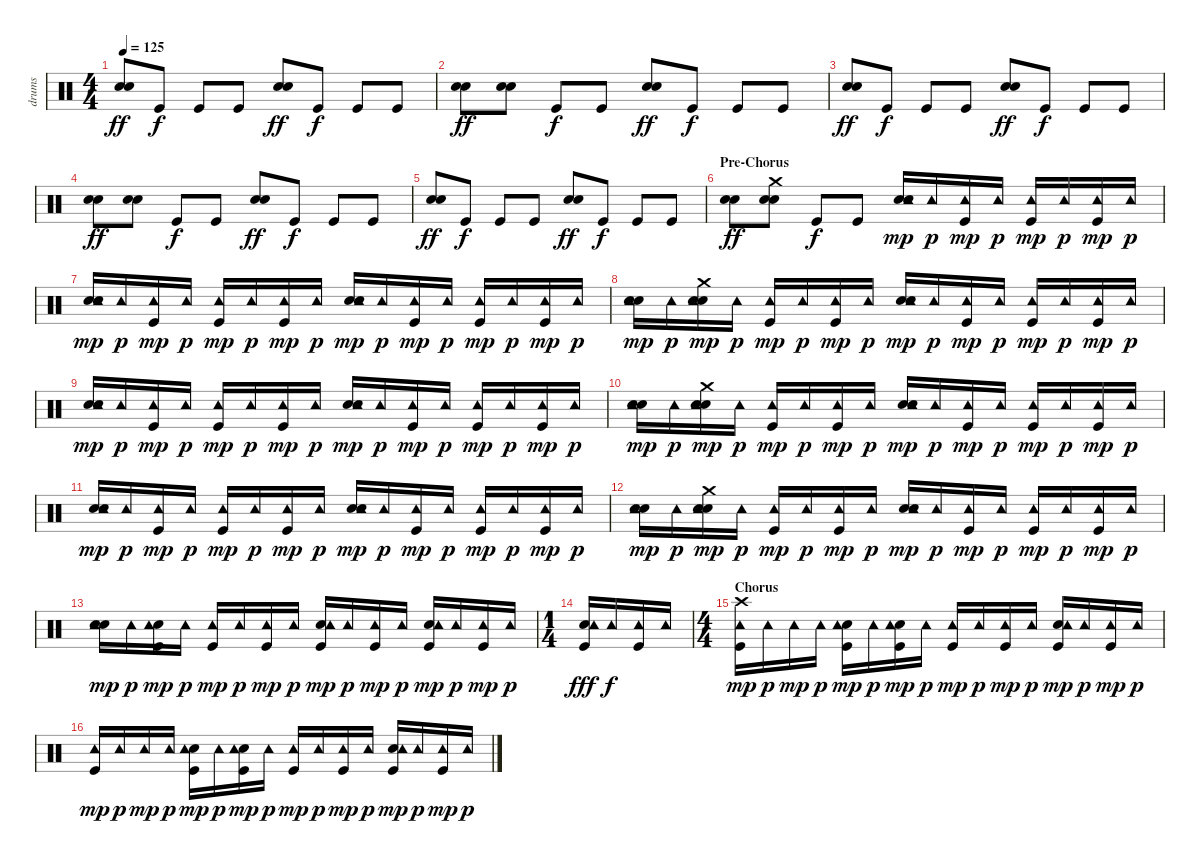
\track ("drums" "drums") {instrument percussion}
\staff {score}
\articulation defaults
\ts (4 4)
\tempo 125
\clef neutral
\ks c
("Electric Snare (hit)" "Hand Clap (hit)").8{dy ff} "Kick (hit)".8{dy f} "Kick (hit)".8 "Kick (hit)".8 ("Electric Snare (hit)" "Hand Clap (hit)").8{dy ff} "Kick (hit)".8{dy f} "Kick (hit)".8 "Kick (hit)".8 |
("Electric Snare (hit)" "Hand Clap (hit)").8{dy ff} ("Electric Snare (hit)" "Hand Clap (hit)").8 "Kick (hit)".8{dy f} "Kick (hit)".8 ("Electric Snare (hit)" "Hand Clap (hit)").8{dy ff} "Kick (hit)".8{dy f} "Kick (hit)".8 "Kick (hit)".8 |
("Electric Snare (hit)" "Hand Clap (hit)").8{dy ff} "Kick (hit)".8{dy f} "Kick (hit)".8 "Kick (hit)".8 ("Electric Snare (hit)" "Hand Clap (hit)").8{dy ff} "Kick (hit)".8{dy f} "Kick (hit)".8 "Kick (hit)".8 |
("Electric Snare (hit)" "Hand Clap (hit)").8{dy ff} ("Electric Snare (hit)" "Hand Clap (hit)").8 "Kick (hit)".8{dy f} "Kick (hit)".8 ("Electric Snare (hit)" "Hand Clap (hit)").8{dy ff} "Kick (hit)".8{dy f} "Kick (hit)".8 "Kick (hit)".8 |
("Electric Snare (hit)" "Hand Clap (hit)").8{dy ff} "Kick (hit)".8{dy f} "Kick (hit)".8 "Kick (hit)".8 ("Electric Snare (hit)" "Hand Clap (hit)").8{dy ff} "Kick (hit)".8{dy f} "Kick (hit)".8 "Kick (hit)".8 |
\section ("" "Pre-Chorus")
("Electric Snare (hit)" "Hand Clap (hit)").8{dy ff} ("Electric Snare (hit)" "Hand Clap (hit)" "Crash medium (hit)").8 "Kick (hit)".8{dy f} "Kick (hit)".8 ("Electric Snare (hit)" "Hand Clap (hit)" "Tambourine (hit)").16{dy mp} "Tambourine (hit)".16{dy p} ("Kick (hit)" "Tambourine (hit)").16{dy mp} "Tambourine (hit)".16{dy p} ("Kick (hit)" "Tambourine (hit)").16{dy mp} "Tambourine (hit)".16{dy p} ("Kick (hit)" "Tambourine (hit)").16{dy mp} "Tambourine (hit)".16{dy p} |
("Electric Snare (hit)" "Hand Clap (hit)" "Tambourine (hit)").16{dy mp} "Tambourine (hit)".16{dy p} ("Kick (hit)" "Tambourine (hit)").16{dy mp} "Tambourine (hit)".16{dy p} ("Kick (hit)" "Tambourine (hit)").16{dy mp} "Tambourine (hit)".16{dy p} ("Kick (hit)" "Tambourine (hit)").16{dy mp} "Tambourine (hit)".16{dy p} ("Electric Snare (hit)" "Hand Clap (hit)" "Tambourine (hit)").16{dy mp} "Tambourine (hit)".16{dy p} ("Kick (hit)" "Tambourine (hit)").16{dy mp} "Tambourine (hit)".16{dy p} ("Kick (hit)" "Tambourine (hit)").16{dy mp} "Tambourine (hit)".16{dy p} ("Kick (hit)" "Tambourine (hit)").16{dy mp} "Tambourine (hit)".16{dy p} |
("Electric Snare (hit)" "Hand Clap (hit)" "Tambourine (hit)").16{dy mp} "Tambourine (hit)".16{dy p} ("Electric Snare (hit)" "Hand Clap (hit)" "Crash medium (hit)" "Tambourine (hit)").16{dy mp} "Tambourine (hit)".16{dy p} ("Kick (hit)" "Tambourine (hit)").16{dy mp} "Tambourine (hit)".16{dy p} ("Kick (hit)" "Tambourine (hit)").16{dy mp} "Tambourine (hit)".16{dy p} ("Electric Snare (hit)" "Hand Clap (hit)" "Tambourine (hit)").16{dy mp} "Tambourine (hit)".16{dy p} ("Kick (hit)" "Tambourine (hit)").16{dy mp} "Tambourine (hit)".16{dy p} ("Kick (hit)" "Tambourine (hit)").16{dy mp} "Tambourine (hit)".16{dy p} ("Kick (hit)" "Tambourine (hit)").16{dy mp} "Tambourine (hit)".16{dy p} |
("Electric Snare (hit)" "Hand Clap (hit)" "Tambourine (hit)").16{dy mp} "Tambourine (hit)".16{dy p} ("Kick (hit)" "Tambourine (hit)").16{dy mp} "Tambourine (hit)".16{dy p} ("Kick (hit)" "Tambourine (hit)").16{dy mp} "Tambourine (hit)".16{dy p} ("Kick (hit)" "Tambourine (hit)").16{dy mp} "Tambourine (hit)".16{dy p} ("Electric Snare (hit)" "Hand Clap (hit)" "Tambourine (hit)").16{dy mp} "Tambourine (hit)".16{dy p} ("Kick (hit)" "Tambourine (hit)").16{dy mp} "Tambourine (hit)".16{dy p} ("Kick (hit)" "Tambourine (hit)").16{dy mp} "Tambourine (hit)".16{dy p} ("Kick (hit)" "Tambourine (hit)").16{dy mp} "Tambourine (hit)".16{dy p} |
("Electric Snare (hit)" "Hand Clap (hit)" "Tambourine (hit)").16{dy mp} "Tambourine (hit)".16{dy p} ("Electric Snare (hit)" "Hand Clap (hit)" "Crash medium (hit)" "Tambourine (hit)").16{dy mp} "Tambourine (hit)".16{dy p} ("Kick (hit)" "Tambourine (hit)").16{dy mp} "Tambourine (hit)".16{dy p} ("Kick (hit)" "Tambourine (hit)").16{dy mp} "Tambourine (hit)".16{dy p} ("Electric Snare (hit)" "Hand Clap (hit)" "Tambourine (hit)").16{dy mp} "Tambourine (hit)".16{dy p} ("Kick (hit)" "Tambourine (hit)").16{dy mp} "Tambourine (hit)".16{dy p} ("Kick (hit)" "Tambourine (hit)").16{dy mp} "Tambourine (hit)".16{dy p} ("Kick (hit)" "Tambourine (hit)").16{dy mp} "Tambourine (hit)".16{dy p} |
("Electric Snare (hit)" "Hand Clap (hit)" "Tambourine (hit)").16{dy mp} "Tambourine (hit)".16{dy p} ("Kick (hit)" "Tambourine (hit)").16{dy mp} "Tambourine (hit)".16{dy p} ("Kick (hit)" "Tambourine (hit)").16{dy mp} "Tambourine (hit)".16{dy p} ("Kick (hit)" "Tambourine (hit)").16{dy mp} "Tambourine (hit)".16{dy p} ("Electric Snare (hit)" "Hand Clap (hit)" "Tambourine (hit)").16{dy mp} "Tambourine (hit)".16{dy p} ("Kick (hit)" "Tambourine (hit)").16{dy mp} "Tambourine (hit)".16{dy p} ("Kick (hit)" "Tambourine (hit)").16{dy mp} "Tambourine (hit)".16{dy p} ("Kick (hit)" "Tambourine (hit)").16{dy mp} "Tambourine (hit)".16{dy p} |
("Electric Snare (hit)" "Hand Clap (hit)" "Tambourine (hit)").16{dy mp} "Tambourine (hit)".16{dy p} ("Electric Snare (hit)" "Hand Clap (hit)" "Crash medium (hit)" "Tambourine (hit)").16{dy mp} "Tambourine (hit)".16{dy p} ("Kick (hit)" "Tambourine (hit)").16{dy mp} "Tambourine (hit)".16{dy p} ("Kick (hit)" "Tambourine (hit)").16{dy mp} "Tambourine (hit)".16{dy p} ("Electric Snare (hit)" "Hand Clap (hit)" "Tambourine (hit)").16{dy mp} "Tambourine (hit)".16{dy p} ("Kick (hit)" "Tambourine (hit)").16{dy mp} "Tambourine (hit)".16{dy p} ("Kick (hit)" "Tambourine (hit)").16{dy mp} "Tambourine (hit)".16{dy p} ("Kick (hit)" "Tambourine (hit)").16{dy mp} "Tambourine (hit)".16{dy p} |
("Electric Snare (hit)" "Hand Clap (hit)" "Tambourine (hit)").16{dy mp} "Tambourine (hit)".16{dy p} ("Electric Snare (hit)" "Kick (hit)" "Tambourine (hit)").16{dy mp} "Tambourine (hit)".16{dy p} ("Kick (hit)" "Tambourine (hit)").16{dy mp} "Tambourine (hit)".16{dy p} ("Kick (hit)" "Tambourine (hit)").16{dy mp} "Tambourine (hit)".16{dy p} ("Electric Snare (hit)" "Kick (hit)" "Tambourine (hit)").16{dy mp} "Tambourine (hit)".16{dy p} ("Kick (hit)" "Tambourine (hit)").16{dy mp} "Tambourine (hit)".16{dy p} ("Electric Snare (hit)" "Kick (hit)" "Tambourine (hit)").16{dy mp} "Tambourine (hit)".16{dy p} ("Kick (hit)" "Tambourine (hit)").16{dy mp} "Tambourine (hit)".16{dy p} |
\ts (1 4)
("Electric Snare (hit)" "Kick (hit)" "Tambourine (hit)").16{dy fff} "Tambourine (hit)".16{dy f} ("Kick (hit)" "Tambourine (hit)").16 "Tambourine (hit)".16 |
\ts (4 4)
\section ("" "Chorus")
("Crash high (hit)" "Kick (hit)" "Tambourine (hit)").16{dy mp} "Tambourine (hit)".16{dy p} "Tambourine (hit)".16{dy mp} "Tambourine (hit)".16{dy p} ("Hand Clap (hit)" "Kick (hit)" "Tambourine (hit)").16{dy mp} "Tambourine (hit)".16{dy p} ("Hand Clap (hit)" "Kick (hit)" "Tambourine (hit)").16{dy mp} "Tambourine (hit)".16{dy p} ("Kick (hit)" "Tambourine (hit)").16{dy mp} "Tambourine (hit)".16{dy p} ("Kick (hit)" "Tambourine (hit)").16{dy mp} "Tambourine (hit)".16{dy p} ("Hand Clap (hit)" "Kick (hit)" "Tambourine (hit)").16{dy mp} "Tambourine (hit)".16{dy p} ("Kick (hit)" "Tambourine (hit)").16{dy mp} "Tambourine (hit)".16{dy p} |
("Kick (hit)" "Tambourine (hit)").16{dy mp} "Tambourine (hit)".16{dy p} "Tambourine (hit)".16{dy mp} "Tambourine (hit)".16{dy p} ("Hand Clap (hit)" "Kick (hit)" "Tambourine (hit)").16{dy mp} "Tambourine (hit)".16{dy p} ("Hand Clap (hit)" "Kick (hit)" "Tambourine (hit)").16{dy mp} "Tambourine (hit)".16{dy p} ("Kick (hit)" "Tambourine (hit)").16{dy mp} "Tambourine (hit)".16{dy p} ("Kick (hit)" "Tambourine (hit)").16{dy mp} "Tambourine (hit)".16{dy p} ("Hand Clap (hit)" "Kick (hit)" "Tambourine (hit)").16{dy mp} "Tambourine (hit)".16{dy p} ("Kick (hit)" "Tambourine (hit)").16{dy mp} "Tambourine (hit)".16{dy p}
